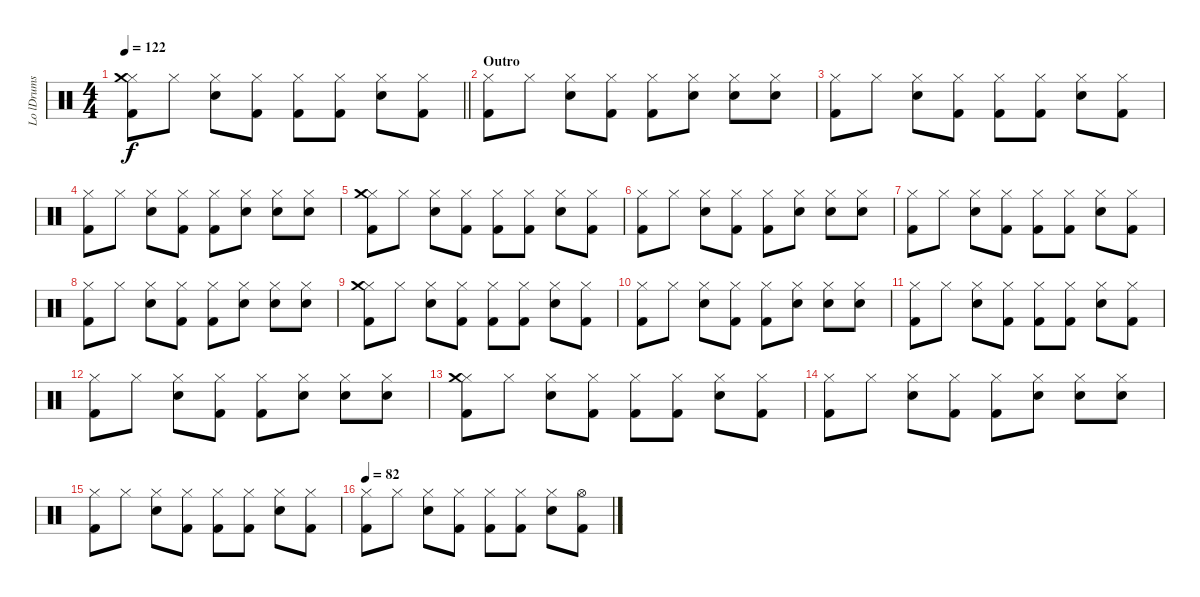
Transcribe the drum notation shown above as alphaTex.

\track ("Lo lDrums" "Lo lDrums") {instrument percussion}
\staff {score}
\articulation defaults
\ts (4 4)
\tempo 122
\clef neutral
\barLineRight lightlight
\ks c
("Hi-Hat (closed)" "Crash medium (hit)" "Kick (hit) 2").8{dy f} "Hi-Hat (closed)".8 ("Hi-Hat (closed)" "Snare (hit) 2").8 ("Hi-Hat (closed)" "Kick (hit) 2").8 ("Hi-Hat (closed)" "Kick (hit) 2").8 ("Hi-Hat (closed)" "Kick (hit) 2").8 ("Hi-Hat (closed)" "Snare (hit) 2").8 ("Hi-Hat (closed)" "Kick (hit) 2").8 |
\section ("" "Outro")
("Kick (hit) 2" "Hi-Hat (closed)").8 "Hi-Hat (closed)".8 ("Snare (hit) 2" "Hi-Hat (closed)").8 ("Kick (hit) 2" "Hi-Hat (closed)").8 ("Kick (hit) 2" "Hi-Hat (closed)").8 ("Snare (hit) 2" "Hi-Hat (closed)").8 ("Snare (hit) 2" "Hi-Hat (closed)").8 ("Snare (hit) 2" "Hi-Hat (closed)").8 |
("Kick (hit) 2" "Hi-Hat (closed)").8 "Hi-Hat (closed)".8 ("Hi-Hat (closed)" "Snare (hit) 2").8 ("Hi-Hat (closed)" "Kick (hit) 2").8 ("Hi-Hat (closed)" "Kick (hit) 2").8 ("Hi-Hat (closed)" "Kick (hit) 2").8 ("Hi-Hat (closed)" "Snare (hit) 2").8 ("Hi-Hat (closed)" "Kick (hit) 2").8 |
("Kick (hit) 2" "Hi-Hat (closed)").8 "Hi-Hat (closed)".8 ("Snare (hit) 2" "Hi-Hat (closed)").8 ("Kick (hit) 2" "Hi-Hat (closed)").8 ("Kick (hit) 2" "Hi-Hat (closed)").8 ("Snare (hit) 2" "Hi-Hat (closed)").8 ("Snare (hit) 2" "Hi-Hat (closed)").8 ("Snare (hit) 2" "Hi-Hat (closed)").8 |
("Hi-Hat (closed)" "Crash medium (hit)" "Kick (hit) 2").8 "Hi-Hat (closed)".8 ("Hi-Hat (closed)" "Snare (hit) 2").8 ("Hi-Hat (closed)" "Kick (hit) 2").8 ("Hi-Hat (closed)" "Kick (hit) 2").8 ("Hi-Hat (closed)" "Kick (hit) 2").8 ("Hi-Hat (closed)" "Snare (hit) 2").8 ("Hi-Hat (closed)" "Kick (hit) 2").8 |
("Kick (hit) 2" "Hi-Hat (closed)").8 "Hi-Hat (closed)".8 ("Snare (hit) 2" "Hi-Hat (closed)").8 ("Kick (hit) 2" "Hi-Hat (closed)").8 ("Kick (hit) 2" "Hi-Hat (closed)").8 ("Snare (hit) 2" "Hi-Hat (closed)").8 ("Snare (hit) 2" "Hi-Hat (closed)").8 ("Snare (hit) 2" "Hi-Hat (closed)").8 |
("Kick (hit) 2" "Hi-Hat (closed)").8 "Hi-Hat (closed)".8 ("Hi-Hat (closed)" "Snare (hit) 2").8 ("Hi-Hat (closed)" "Kick (hit) 2").8 ("Hi-Hat (closed)" "Kick (hit) 2").8 ("Hi-Hat (closed)" "Kick (hit) 2").8 ("Hi-Hat (closed)" "Snare (hit) 2").8 ("Hi-Hat (closed)" "Kick (hit) 2").8 |
("Kick (hit) 2" "Hi-Hat (closed)").8 "Hi-Hat (closed)".8 ("Snare (hit) 2" "Hi-Hat (closed)").8 ("Kick (hit) 2" "Hi-Hat (closed)").8 ("Kick (hit) 2" "Hi-Hat (closed)").8 ("Snare (hit) 2" "Hi-Hat (closed)").8 ("Snare (hit) 2" "Hi-Hat (closed)").8 ("Snare (hit) 2" "Hi-Hat (closed)").8 |
("Hi-Hat (closed)" "Crash medium (hit)" "Kick (hit) 2").8 "Hi-Hat (closed)".8 ("Hi-Hat (closed)" "Snare (hit) 2").8 ("Hi-Hat (closed)" "Kick (hit) 2").8 ("Hi-Hat (closed)" "Kick (hit) 2").8 ("Hi-Hat (closed)" "Kick (hit) 2").8 ("Hi-Hat (closed)" "Snare (hit) 2").8 ("Hi-Hat (closed)" "Kick (hit) 2").8 |
("Kick (hit) 2" "Hi-Hat (closed)").8 "Hi-Hat (closed)".8 ("Snare (hit) 2" "Hi-Hat (closed)").8 ("Kick (hit) 2" "Hi-Hat (closed)").8 ("Kick (hit) 2" "Hi-Hat (closed)").8 ("Snare (hit) 2" "Hi-Hat (closed)").8 ("Snare (hit) 2" "Hi-Hat (closed)").8 ("Snare (hit) 2" "Hi-Hat (closed)").8 |
("Kick (hit) 2" "Hi-Hat (closed)").8 "Hi-Hat (closed)".8 ("Hi-Hat (closed)" "Snare (hit) 2").8 ("Hi-Hat (closed)" "Kick (hit) 2").8 ("Hi-Hat (closed)" "Kick (hit) 2").8 ("Hi-Hat (closed)" "Kick (hit) 2").8 ("Hi-Hat (closed)" "Snare (hit) 2").8 ("Hi-Hat (closed)" "Kick (hit) 2").8 |
("Kick (hit) 2" "Hi-Hat (closed)").8 "Hi-Hat (closed)".8 ("Snare (hit) 2" "Hi-Hat (closed)").8 ("Kick (hit) 2" "Hi-Hat (closed)").8 ("Kick (hit) 2" "Hi-Hat (closed)").8 ("Snare (hit) 2" "Hi-Hat (closed)").8 ("Snare (hit) 2" "Hi-Hat (closed)").8 ("Snare (hit) 2" "Hi-Hat (closed)").8 |
("Hi-Hat (closed)" "Crash medium (hit)" "Kick (hit) 2").8 "Hi-Hat (closed)".8 ("Hi-Hat (closed)" "Snare (hit) 2").8 ("Hi-Hat (closed)" "Kick (hit) 2").8 ("Hi-Hat (closed)" "Kick (hit) 2").8 ("Hi-Hat (closed)" "Kick (hit) 2").8 ("Hi-Hat (closed)" "Snare (hit) 2").8 ("Hi-Hat (closed)" "Kick (hit) 2").8 |
("Kick (hit) 2" "Hi-Hat (closed)").8 "Hi-Hat (closed)".8 ("Snare (hit) 2" "Hi-Hat (closed)").8 ("Kick (hit) 2" "Hi-Hat (closed)").8 ("Kick (hit) 2" "Hi-Hat (closed)").8 ("Snare (hit) 2" "Hi-Hat (closed)").8 ("Snare (hit) 2" "Hi-Hat (closed)").8 ("Snare (hit) 2" "Hi-Hat (closed)").8 |
("Kick (hit) 2" "Hi-Hat (closed)").8 "Hi-Hat (closed)".8 ("Hi-Hat (closed)" "Snare (hit) 2").8 ("Hi-Hat (closed)" "Kick (hit) 2").8 ("Hi-Hat (closed)" "Kick (hit) 2").8 ("Hi-Hat (closed)" "Kick (hit) 2").8 ("Hi-Hat (closed)" "Snare (hit) 2").8 ("Hi-Hat (closed)" "Kick (hit) 2").8 |
\tempo 82
("Kick (hit) 2" "Hi-Hat (closed)").8 "Hi-Hat (closed)".8 ("Snare (hit) 2" "Hi-Hat (closed)").8 ("Kick (hit) 2" "Hi-Hat (closed)").8 ("Kick (hit) 2" "Hi-Hat (closed)").8 ("Kick (hit) 2" "Hi-Hat (closed)").8 ("Snare (hit) 2" "Hi-Hat (closed)").8 ("Kick (hit) 2" "Hi-Hat (open)").8
